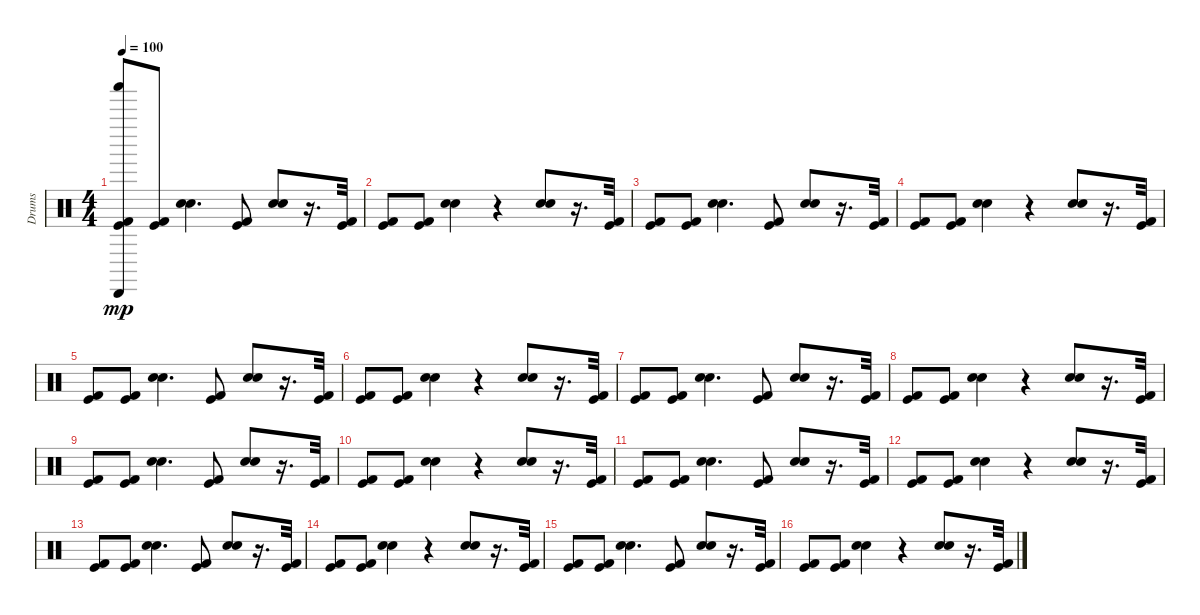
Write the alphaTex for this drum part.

\track ("Drums" "Drums") {instrument percussion}
\staff {score}
\articulation defaults
\ts (4 4)
\tempo 100
\clef neutral
\ks c
("Kick (hit)" "Kick (hit) 2" "Shaker (hit)" "Cabasa (hit)").8{dy mp} ("Kick (hit)" "Kick (hit) 2").8 ("Snare (hit) 2" "Electric Snare (hit)").4{d} ("Kick (hit)" "Kick (hit) 2").8 ("Snare (hit) 2" "Electric Snare (hit)").8 r.16{d} ("Kick (hit)" "Kick (hit) 2").32 |
("Kick (hit)" "Kick (hit) 2").8 ("Kick (hit)" "Kick (hit) 2").8 ("Snare (hit) 2" "Electric Snare (hit)").4 r.4 ("Snare (hit) 2" "Electric Snare (hit)").8 r.16{d} ("Kick (hit)" "Kick (hit) 2").32 |
("Kick (hit)" "Kick (hit) 2").8 ("Kick (hit)" "Kick (hit) 2").8 ("Snare (hit) 2" "Electric Snare (hit)").4{d} ("Kick (hit)" "Kick (hit) 2").8 ("Snare (hit) 2" "Electric Snare (hit)").8 r.16{d} ("Kick (hit)" "Kick (hit) 2").32 |
("Kick (hit)" "Kick (hit) 2").8 ("Kick (hit)" "Kick (hit) 2").8 ("Snare (hit) 2" "Electric Snare (hit)").4 r.4 ("Snare (hit) 2" "Electric Snare (hit)").8 r.16{d} ("Kick (hit)" "Kick (hit) 2").32 |
("Kick (hit)" "Kick (hit) 2").8 ("Kick (hit)" "Kick (hit) 2").8 ("Snare (hit) 2" "Electric Snare (hit)").4{d} ("Kick (hit)" "Kick (hit) 2").8 ("Snare (hit) 2" "Electric Snare (hit)").8 r.16{d} ("Kick (hit)" "Kick (hit) 2").32 |
("Kick (hit)" "Kick (hit) 2").8 ("Kick (hit)" "Kick (hit) 2").8 ("Snare (hit) 2" "Electric Snare (hit)").4 r.4 ("Snare (hit) 2" "Electric Snare (hit)").8 r.16{d} ("Kick (hit)" "Kick (hit) 2").32 |
("Kick (hit)" "Kick (hit) 2").8 ("Kick (hit)" "Kick (hit) 2").8 ("Snare (hit) 2" "Electric Snare (hit)").4{d} ("Kick (hit)" "Kick (hit) 2").8 ("Snare (hit) 2" "Electric Snare (hit)").8 r.16{d} ("Kick (hit)" "Kick (hit) 2").32 |
("Kick (hit)" "Kick (hit) 2").8 ("Kick (hit)" "Kick (hit) 2").8 ("Snare (hit) 2" "Electric Snare (hit)").4 r.4 ("Snare (hit) 2" "Electric Snare (hit)").8 r.16{d} ("Kick (hit)" "Kick (hit) 2").32 |
("Kick (hit)" "Kick (hit) 2").8 ("Kick (hit)" "Kick (hit) 2").8 ("Snare (hit) 2" "Electric Snare (hit)").4{d} ("Kick (hit)" "Kick (hit) 2").8 ("Snare (hit) 2" "Electric Snare (hit)").8 r.16{d} ("Kick (hit)" "Kick (hit) 2").32 |
("Kick (hit)" "Kick (hit) 2").8 ("Kick (hit)" "Kick (hit) 2").8 ("Snare (hit) 2" "Electric Snare (hit)").4 r.4 ("Snare (hit) 2" "Electric Snare (hit)").8 r.16{d} ("Kick (hit)" "Kick (hit) 2").32 |
("Kick (hit)" "Kick (hit) 2").8 ("Kick (hit)" "Kick (hit) 2").8 ("Snare (hit) 2" "Electric Snare (hit)").4{d} ("Kick (hit)" "Kick (hit) 2").8 ("Snare (hit) 2" "Electric Snare (hit)").8 r.16{d} ("Kick (hit)" "Kick (hit) 2").32 |
("Kick (hit)" "Kick (hit) 2").8 ("Kick (hit)" "Kick (hit) 2").8 ("Snare (hit) 2" "Electric Snare (hit)").4 r.4 ("Snare (hit) 2" "Electric Snare (hit)").8 r.16{d} ("Kick (hit)" "Kick (hit) 2").32 |
("Kick (hit)" "Kick (hit) 2").8 ("Kick (hit)" "Kick (hit) 2").8 ("Snare (hit) 2" "Electric Snare (hit)").4{d} ("Kick (hit)" "Kick (hit) 2").8 ("Snare (hit) 2" "Electric Snare (hit)").8 r.16{d} ("Kick (hit)" "Kick (hit) 2").32 |
("Kick (hit)" "Kick (hit) 2").8 ("Kick (hit)" "Kick (hit) 2").8 ("Snare (hit) 2" "Electric Snare (hit)").4 r.4 ("Snare (hit) 2" "Electric Snare (hit)").8 r.16{d} ("Kick (hit)" "Kick (hit) 2").32 |
("Kick (hit)" "Kick (hit) 2").8 ("Kick (hit)" "Kick (hit) 2").8 ("Snare (hit) 2" "Electric Snare (hit)").4{d} ("Kick (hit)" "Kick (hit) 2").8 ("Snare (hit) 2" "Electric Snare (hit)").8 r.16{d} ("Kick (hit)" "Kick (hit) 2").32 |
("Kick (hit)" "Kick (hit) 2").8 ("Kick (hit)" "Kick (hit) 2").8 ("Snare (hit) 2" "Electric Snare (hit)").4 r.4 ("Snare (hit) 2" "Electric Snare (hit)").8 r.16{d} ("Kick (hit)" "Kick (hit) 2").32
